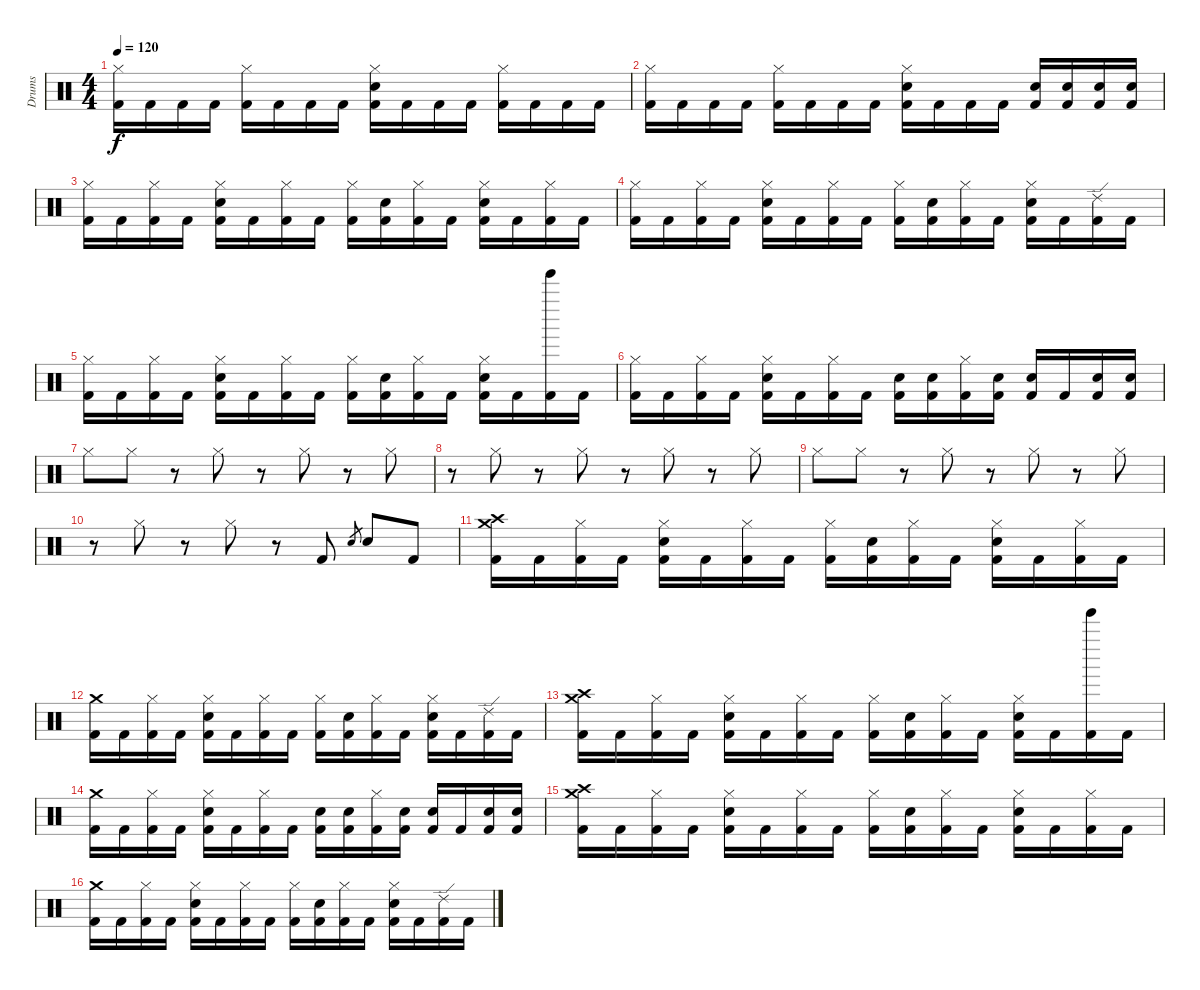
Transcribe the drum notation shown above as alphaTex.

\track ("Drums" "Drums") {instrument percussion}
\staff {score}
\articulation defaults
\ts (4 4)
\tempo 120
\clef neutral
\ks c
("Hi-Hat (closed)" "Kick (hit) 2").16{dy f} "Kick (hit) 2".16 "Kick (hit) 2".16 "Kick (hit) 2".16 ("Hi-Hat (closed)" "Kick (hit) 2").16 "Kick (hit) 2".16 "Kick (hit) 2".16 "Kick (hit) 2".16 ("Hi-Hat (closed)" "Kick (hit) 2" "Snare (hit) 2").16 "Kick (hit) 2".16 "Kick (hit) 2".16 "Kick (hit) 2".16 ("Hi-Hat (closed)" "Kick (hit) 2").16 "Kick (hit) 2".16 "Kick (hit) 2".16 "Kick (hit) 2".16 |
("Hi-Hat (closed)" "Kick (hit) 2").16 "Kick (hit) 2".16 "Kick (hit) 2".16 "Kick (hit) 2".16 ("Hi-Hat (closed)" "Kick (hit) 2").16 "Kick (hit) 2".16 "Kick (hit) 2".16 "Kick (hit) 2".16 ("Hi-Hat (closed)" "Kick (hit) 2" "Snare (hit) 2").16 "Kick (hit) 2".16 "Kick (hit) 2".16 "Kick (hit) 2".16 ("Kick (hit) 2" "Snare (hit) 2").16 ("Kick (hit) 2" "Snare (hit) 2").16 ("Kick (hit) 2" "Snare (hit) 2").16 ("Kick (hit) 2" "Snare (hit) 2").16 |
("Hi-Hat (closed)" "Kick (hit) 2").16 "Kick (hit) 2".16 ("Hi-Hat (closed)" "Kick (hit) 2").16 "Kick (hit) 2".16 ("Hi-Hat (closed)" "Kick (hit) 2" "Snare (hit) 2").16 "Kick (hit) 2".16 ("Hi-Hat (closed)" "Kick (hit) 2").16 "Kick (hit) 2".16 ("Hi-Hat (closed)" "Kick (hit) 2").16 ("Kick (hit) 2" "Snare (hit) 2").16 ("Hi-Hat (closed)" "Kick (hit) 2").16 "Kick (hit) 2".16 ("Hi-Hat (closed)" "Kick (hit) 2" "Snare (hit) 2").16 "Kick (hit) 2".16 ("Hi-Hat (closed)" "Kick (hit) 2").16 "Kick (hit) 2".16 |
("Hi-Hat (closed)" "Kick (hit) 2").16 "Kick (hit) 2".16 ("Hi-Hat (closed)" "Kick (hit) 2").16 "Kick (hit) 2".16 ("Hi-Hat (closed)" "Kick (hit) 2" "Snare (hit) 2").16 "Kick (hit) 2".16 ("Hi-Hat (closed)" "Kick (hit) 2").16 "Kick (hit) 2".16 ("Hi-Hat (closed)" "Kick (hit) 2").16 ("Kick (hit) 2" "Snare (hit) 2").16 ("Hi-Hat (closed)" "Kick (hit) 2").16 "Kick (hit) 2".16 ("Hi-Hat (closed)" "Kick (hit) 2" "Snare (hit) 2").16 "Kick (hit) 2".16 ("Ride (edge) 2" "Kick (hit) 2").16 "Kick (hit) 2".16 |
("Hi-Hat (closed)" "Kick (hit) 2").16 "Kick (hit) 2".16 ("Hi-Hat (closed)" "Kick (hit) 2").16 "Kick (hit) 2".16 ("Hi-Hat (closed)" "Kick (hit) 2" "Snare (hit) 2").16 "Kick (hit) 2".16 ("Hi-Hat (closed)" "Kick (hit) 2").16 "Kick (hit) 2".16 ("Hi-Hat (closed)" "Kick (hit) 2").16 ("Kick (hit) 2" "Snare (hit) 2").16 ("Hi-Hat (closed)" "Kick (hit) 2").16 "Kick (hit) 2".16 ("Hi-Hat (closed)" "Kick (hit) 2" "Snare (hit) 2").16 "Kick (hit) 2".16 ("Tinkle Bell (hit)" "Kick (hit) 2").16 "Kick (hit) 2".16 |
("Hi-Hat (closed)" "Kick (hit) 2").16 "Kick (hit) 2".16 ("Hi-Hat (closed)" "Kick (hit) 2").16 "Kick (hit) 2".16 ("Hi-Hat (closed)" "Kick (hit) 2" "Snare (hit) 2").16 "Kick (hit) 2".16 ("Hi-Hat (closed)" "Kick (hit) 2").16 "Kick (hit) 2".16 ("Kick (hit) 2" "Snare (hit) 2").16 ("Kick (hit) 2" "Snare (hit) 2").16 ("Hi-Hat (closed)" "Kick (hit) 2").16 ("Kick (hit) 2" "Snare (hit) 2").16 ("Kick (hit) 2" "Snare (hit) 2").16 "Kick (hit) 2".16 ("Kick (hit) 2" "Snare (hit) 2").16 ("Kick (hit) 2" "Snare (hit) 2").16 |
"Hi-Hat (closed)".8 "Hi-Hat (closed)".8 r.8 "Hi-Hat (closed)".8 r.8 "Hi-Hat (closed)".8 r.8 "Hi-Hat (closed)".8 |
r.8 "Hi-Hat (closed)".8 r.8 "Hi-Hat (closed)".8 r.8 "Hi-Hat (closed)".8 r.8 "Hi-Hat (closed)".8 |
"Hi-Hat (closed)".8 "Hi-Hat (closed)".8 r.8 "Hi-Hat (closed)".8 r.8 "Hi-Hat (closed)".8 r.8 "Hi-Hat (closed)".8 |
r.8 "Hi-Hat (closed)".8 r.8 "Hi-Hat (closed)".8 r.8 "Kick (hit) 2".8 "Snare (hit) 2".8{gr} "Snare (hit) 2".8 "Kick (hit) 2".8 |
("Crash medium (hit)" "Kick (hit) 2" "Crash high (hit)").16 "Kick (hit) 2".16 ("Hi-Hat (closed)" "Kick (hit) 2").16 "Kick (hit) 2".16 ("Hi-Hat (closed)" "Kick (hit) 2" "Snare (hit) 2").16 "Kick (hit) 2".16 ("Hi-Hat (closed)" "Kick (hit) 2").16 "Kick (hit) 2".16 ("Hi-Hat (closed)" "Kick (hit) 2").16 ("Kick (hit) 2" "Snare (hit) 2").16 ("Hi-Hat (closed)" "Kick (hit) 2").16 "Kick (hit) 2".16 ("Hi-Hat (closed)" "Kick (hit) 2" "Snare (hit) 2").16 "Kick (hit) 2".16 ("Hi-Hat (closed)" "Kick (hit) 2").16 "Kick (hit) 2".16 |
("Crash medium (hit)" "Kick (hit) 2").16 "Kick (hit) 2".16 ("Hi-Hat (closed)" "Kick (hit) 2").16 "Kick (hit) 2".16 ("Hi-Hat (closed)" "Kick (hit) 2" "Snare (hit) 2").16 "Kick (hit) 2".16 ("Hi-Hat (closed)" "Kick (hit) 2").16 "Kick (hit) 2".16 ("Hi-Hat (closed)" "Kick (hit) 2").16 ("Kick (hit) 2" "Snare (hit) 2").16 ("Hi-Hat (closed)" "Kick (hit) 2").16 "Kick (hit) 2".16 ("Hi-Hat (closed)" "Kick (hit) 2" "Snare (hit) 2").16 "Kick (hit) 2".16 ("Ride (edge) 2" "Kick (hit) 2").16 "Kick (hit) 2".16 |
("Crash medium (hit)" "Kick (hit) 2" "Crash high (hit)").16 "Kick (hit) 2".16 ("Hi-Hat (closed)" "Kick (hit) 2").16 "Kick (hit) 2".16 ("Hi-Hat (closed)" "Kick (hit) 2" "Snare (hit) 2").16 "Kick (hit) 2".16 ("Hi-Hat (closed)" "Kick (hit) 2").16 "Kick (hit) 2".16 ("Hi-Hat (closed)" "Kick (hit) 2").16 ("Kick (hit) 2" "Snare (hit) 2").16 ("Hi-Hat (closed)" "Kick (hit) 2").16 "Kick (hit) 2".16 ("Hi-Hat (closed)" "Kick (hit) 2" "Snare (hit) 2").16 "Kick (hit) 2".16 ("Tinkle Bell (hit)" "Kick (hit) 2").16 "Kick (hit) 2".16 |
("Crash medium (hit)" "Kick (hit) 2").16 "Kick (hit) 2".16 ("Hi-Hat (closed)" "Kick (hit) 2").16 "Kick (hit) 2".16 ("Hi-Hat (closed)" "Kick (hit) 2" "Snare (hit) 2").16 "Kick (hit) 2".16 ("Hi-Hat (closed)" "Kick (hit) 2").16 "Kick (hit) 2".16 ("Kick (hit) 2" "Snare (hit) 2").16 ("Kick (hit) 2" "Snare (hit) 2").16 ("Hi-Hat (closed)" "Kick (hit) 2").16 ("Kick (hit) 2" "Snare (hit) 2").16 ("Kick (hit) 2" "Snare (hit) 2").16 "Kick (hit) 2".16 ("Kick (hit) 2" "Snare (hit) 2").16 ("Kick (hit) 2" "Snare (hit) 2").16 |
("Crash medium (hit)" "Kick (hit) 2" "Crash high (hit)").16 "Kick (hit) 2".16 ("Hi-Hat (closed)" "Kick (hit) 2").16 "Kick (hit) 2".16 ("Hi-Hat (closed)" "Kick (hit) 2" "Snare (hit) 2").16 "Kick (hit) 2".16 ("Hi-Hat (closed)" "Kick (hit) 2").16 "Kick (hit) 2".16 ("Hi-Hat (closed)" "Kick (hit) 2").16 ("Kick (hit) 2" "Snare (hit) 2").16 ("Hi-Hat (closed)" "Kick (hit) 2").16 "Kick (hit) 2".16 ("Hi-Hat (closed)" "Kick (hit) 2" "Snare (hit) 2").16 "Kick (hit) 2".16 ("Hi-Hat (closed)" "Kick (hit) 2").16 "Kick (hit) 2".16 |
("Crash medium (hit)" "Kick (hit) 2").16 "Kick (hit) 2".16 ("Hi-Hat (closed)" "Kick (hit) 2").16 "Kick (hit) 2".16 ("Hi-Hat (closed)" "Kick (hit) 2" "Snare (hit) 2").16 "Kick (hit) 2".16 ("Hi-Hat (closed)" "Kick (hit) 2").16 "Kick (hit) 2".16 ("Hi-Hat (closed)" "Kick (hit) 2").16 ("Kick (hit) 2" "Snare (hit) 2").16 ("Hi-Hat (closed)" "Kick (hit) 2").16 "Kick (hit) 2".16 ("Hi-Hat (closed)" "Kick (hit) 2" "Snare (hit) 2").16 "Kick (hit) 2".16 ("Ride (edge) 2" "Kick (hit) 2").16 "Kick (hit) 2".16
